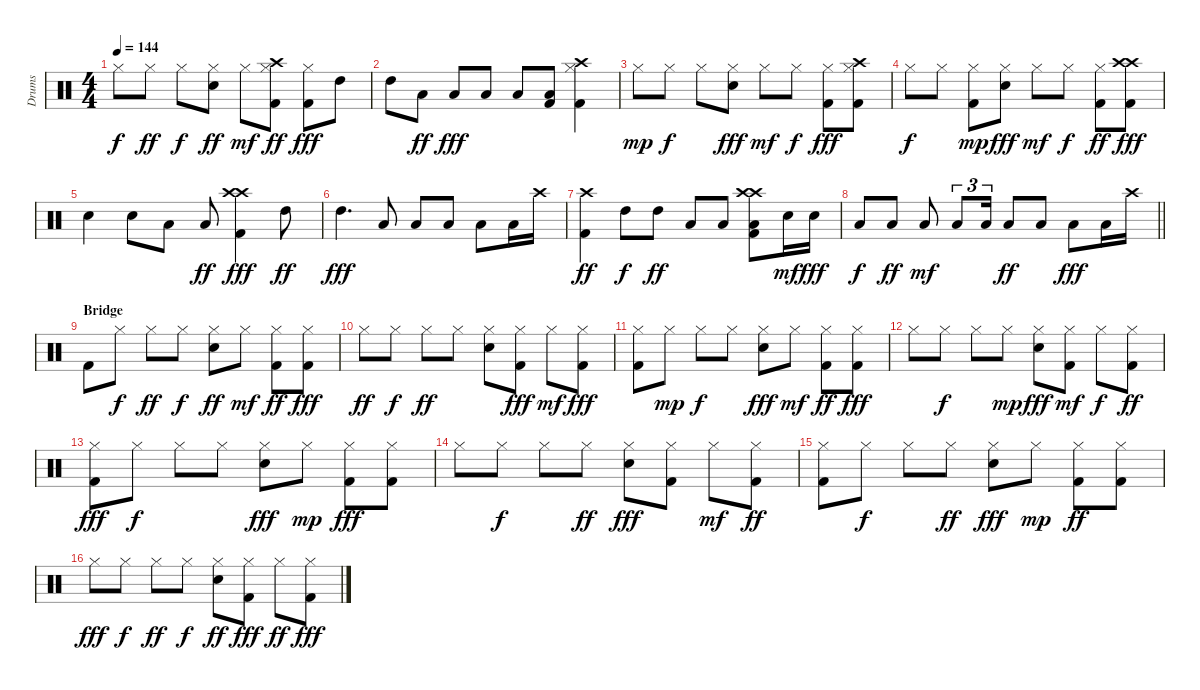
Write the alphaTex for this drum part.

\track ("Drums" "Drums") {instrument percussion}
\staff {score}
\articulation defaults
\ts (4 4)
\tempo 144
\clef neutral
\ks c "Hi-Hat (closed)".8{dy f} "Hi-Hat (closed)".8{dy ff} "Hi-Hat (closed)".8{dy f}
("Snare (hit) 2" "Hi-Hat (closed)").8{dy ff} "Hi-Hat (closed)".8{dy mf} ("Crash high (hit)" "Kick (hit) 2" "Hi-Hat (closed)").8{dy ff} ("Kick (hit) 2" "Hi-Hat (closed)").8{dy fff} "High Tom (hit)".8 |
"High Tom (hit)".8 "Low Tom (hit)".8{dy ff} "Low Floor Tom (hit)".8{dy fff} "Low Floor Tom (hit)".8 "Low Floor Tom (hit)".8 ("Low Floor Tom (hit)" "Kick (hit) 2").8 ("Crash high (hit)" "Kick (hit) 2" "Hi-Hat (closed)").4 |
"Hi-Hat (closed)".8{dy mp} "Hi-Hat (closed)".8{dy f} "Hi-Hat (closed)".8 ("Snare (hit) 2" "Hi-Hat (closed)").8{dy fff} "Hi-Hat (closed)".8{dy mf} "Hi-Hat (closed)".8{dy f} ("Kick (hit) 2" "Hi-Hat (closed)").8{dy fff} ("Crash high (hit)" "Kick (hit) 2" "Hi-Hat (closed)").8 |
"Hi-Hat (closed)".8{dy f} "Hi-Hat (closed)".8 ("Kick (hit) 2" "Hi-Hat (closed)").8{dy mp} ("Snare (hit) 2" "Hi-Hat (closed)").8{dy fff} "Hi-Hat (closed)".8{dy mf} "Hi-Hat (closed)".8{dy f} ("Kick (hit) 2" "Hi-Hat (closed)").8{dy ff} ("Crash high (hit)" "Crash high (hit)" "Kick (hit) 2").8{dy fff} |
"Snare (hit) 2".4 "Snare (hit) 2".8 "Low Tom (hit)".8 "Low Tom (hit)".8{dy ff} ("Crash high (hit)" "Crash high (hit)" "Kick (hit) 2").4{dy fff} "High Tom (hit)".8{dy ff} |
"High Tom (hit)".4{d dy fff} "Low Tom (hit)".8 "Low Floor Tom (hit)".8 "Low Floor Tom (hit)".8 "Low Floor Tom (hit)".8 "Low Floor Tom (hit)".16 "Crash high (hit)".16 |
("Kick (hit) 2" "Crash high (hit)").4{dy ff} "High Tom (hit)".8{dy f} "High Tom (hit)".8{dy ff} "Low Tom (hit)".8 "Low Tom (hit)".8 ("Crash high (hit)" "Crash high (hit)" "Kick (hit) 2" "Low Floor Tom (hit)").8 "Hand Clap (hit)".16{dy mf} "Snare (hit) 2".16{dy fff} |
\barLineRight lightlight "Low Tom (hit)".8{dy f} "Low Tom (hit)".8{dy ff} "Low Tom (hit)".8{dy mf} "Low Tom (hit)".8{tu (3 2)} "Low Tom (hit)".16{tu (3 2)} "Low Tom (hit)".8{dy ff} "Low Floor Tom (hit)".8 "Low Floor Tom (hit)".8{dy fff} "Low Floor Tom (hit)".16 "Crash high (hit)".16
|
\section ("" "Bridge")
"Kick (hit) 2".8 "Hi-Hat (closed)".8{dy f} "Hi-Hat (closed)".8{dy ff} "Hi-Hat (closed)".8{dy f} ("Snare (hit) 2" "Hi-Hat (closed)").8{dy ff} "Hi-Hat (closed)".8{dy mf} ("Kick (hit) 2" "Hi-Hat (closed)").8{dy ff} ("Kick (hit) 2" "Hi-Hat (closed)").8{dy fff} |
"Hi-Hat (closed)".8{dy ff} "Hi-Hat (closed)".8{dy f} "Hi-Hat (closed)".8{dy ff} "Hi-Hat (closed)".8 ("Snare (hit) 2" "Hi-Hat (closed)").8 ("Kick (hit) 2" "Hi-Hat (closed)").8{dy fff} "Hi-Hat (closed)".8{dy mf} ("Kick (hit) 2" "Hi-Hat (closed)").8{dy fff} |
("Kick (hit) 2" "Hi-Hat (closed)").8 "Hi-Hat (closed)".8{dy mp} "Hi-Hat (closed)".8{dy f} "Hi-Hat (closed)".8 ("Snare (hit) 2" "Hi-Hat (closed)").8{dy fff} "Hi-Hat (closed)".8{dy mf} ("Kick (hit) 2" "Hi-Hat (closed)").8{dy ff} ("Kick (hit) 2" "Hi-Hat (closed)").8{dy fff} |
"Hi-Hat (closed)".8 "Hi-Hat (closed)".8{dy f} "Hi-Hat (closed)".8 "Hi-Hat (closed)".8{dy mp} ("Snare (hit) 2" "Hi-Hat (closed)").8{dy fff} ("Kick (hit) 2" "Hi-Hat (closed)").8{dy mf} "Hi-Hat (closed)".8{dy f} ("Kick (hit) 2" "Hi-Hat (closed)").8{dy ff} |
("Kick (hit) 2" "Hi-Hat (closed)").8{dy fff} "Hi-Hat (closed)".8{dy f} "Hi-Hat (closed)".8 "Hi-Hat (closed)".8 ("Snare (hit) 2" "Hi-Hat (closed)").8{dy fff} "Hi-Hat (closed)".8{dy mp} ("Kick (hit) 2" "Hi-Hat (closed)").8{dy fff} ("Kick (hit) 2" "Hi-Hat (closed)").8 |
"Hi-Hat (closed)".8 "Hi-Hat (closed)".8{dy f} "Hi-Hat (closed)".8 "Hi-Hat (closed)".8{dy ff} ("Snare (hit) 2" "Hi-Hat (closed)").8{dy fff} ("Kick (hit) 2" "Hi-Hat (closed)").8 "Hi-Hat (closed)".8{dy mf} ("Kick (hit) 2" "Hi-Hat (closed)").8{dy ff} |
("Kick (hit) 2" "Hi-Hat (closed)").8 "Hi-Hat (closed)".8{dy f} "Hi-Hat (closed)".8 "Hi-Hat (closed)".8{dy ff} ("Snare (hit) 2" "Hi-Hat (closed)").8{dy fff} "Hi-Hat (closed)".8{dy mp} ("Kick (hit) 2" "Hi-Hat (closed)").8{dy ff} ("Kick (hit) 2" "Hi-Hat (closed)").8 |
"Hi-Hat (closed)".8{dy fff} "Hi-Hat (closed)".8{dy f} "Hi-Hat (closed)".8{dy ff} "Hi-Hat (closed)".8{dy f} ("Snare (hit) 2" "Hi-Hat (closed)").8{dy ff} ("Kick (hit) 2" "Hi-Hat (closed)").8{dy fff} "Hi-Hat (closed)".8{dy ff} ("Kick (hit) 2" "Hi-Hat (closed)").8{dy fff}
